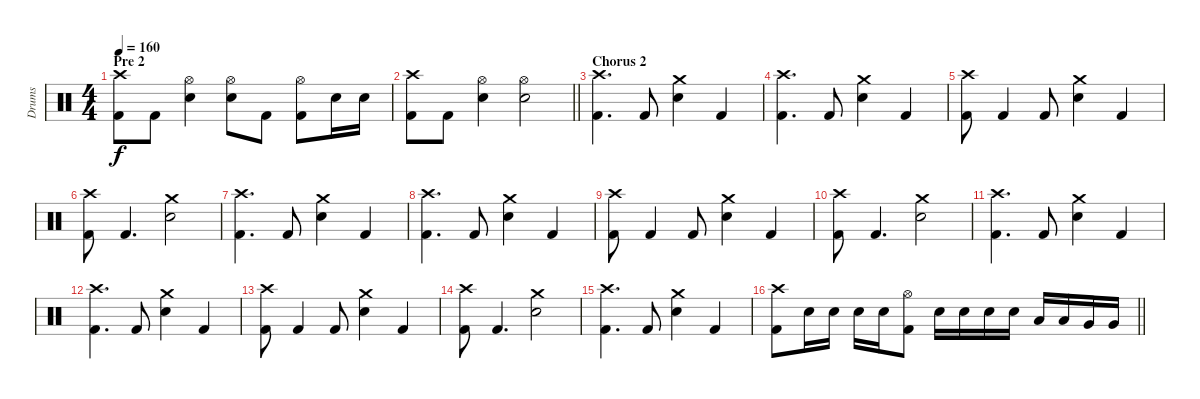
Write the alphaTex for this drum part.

\track ("Drums" "Drums") {instrument percussion}
\staff {score}
\articulation defaults
\ts (4 4)
\section ("" "Pre 2")
\tempo 160
\clef neutral
\ks c
("Kick (hit) 2" "Crash high (hit)").8{dy f} "Kick (hit) 2".8 ("Electric Snare (hit)" "Hi-Hat (open)").4 ("Electric Snare (hit)" "Hi-Hat (open)").8 "Kick (hit) 2".8 ("Kick (hit) 2" "Hi-Hat (open)").8 "Electric Snare (hit)".16 "Electric Snare (hit)".16 |
\barLineRight lightlight
("Kick (hit) 2" "Crash high (hit)").8 "Kick (hit) 2".8 ("Electric Snare (hit)" "Hi-Hat (open)").4 ("Electric Snare (hit)" "Hi-Hat (open)").2 |
\section ("" "Chorus 2")
("Kick (hit) 2" "Crash high (hit)").4{d} "Kick (hit) 2".8 ("Electric Snare (hit)" "Crash medium (hit)").4 "Kick (hit) 2".4 |
("Kick (hit) 2" "Crash high (hit)").4{d} "Kick (hit) 2".8 ("Electric Snare (hit)" "Crash medium (hit)").4 "Kick (hit) 2".4 |
("Kick (hit) 2" "Crash high (hit)").8 "Kick (hit) 2".4 "Kick (hit) 2".8 ("Electric Snare (hit)" "Crash medium (hit)").4 "Kick (hit) 2".4 |
("Kick (hit) 2" "Crash high (hit)").8 "Kick (hit) 2".4{d} ("Electric Snare (hit)" "Crash medium (hit)").2 |
("Kick (hit) 2" "Crash high (hit)").4{d} "Kick (hit) 2".8 ("Electric Snare (hit)" "Crash medium (hit)").4 "Kick (hit) 2".4 |
("Kick (hit) 2" "Crash high (hit)").4{d} "Kick (hit) 2".8 ("Electric Snare (hit)" "Crash medium (hit)").4 "Kick (hit) 2".4 |
("Kick (hit) 2" "Crash high (hit)").8 "Kick (hit) 2".4 "Kick (hit) 2".8 ("Electric Snare (hit)" "Crash medium (hit)").4 "Kick (hit) 2".4 |
("Kick (hit) 2" "Crash high (hit)").8 "Kick (hit) 2".4{d} ("Electric Snare (hit)" "Crash medium (hit)").2 |
("Kick (hit) 2" "Crash high (hit)").4{d} "Kick (hit) 2".8 ("Electric Snare (hit)" "Crash medium (hit)").4 "Kick (hit) 2".4 |
("Kick (hit) 2" "Crash high (hit)").4{d} "Kick (hit) 2".8 ("Electric Snare (hit)" "Crash medium (hit)").4 "Kick (hit) 2".4 |
("Kick (hit) 2" "Crash high (hit)").8 "Kick (hit) 2".4 "Kick (hit) 2".8 ("Electric Snare (hit)" "Crash medium (hit)").4 "Kick (hit) 2".4 |
("Kick (hit) 2" "Crash high (hit)").8 "Kick (hit) 2".4{d} ("Electric Snare (hit)" "Crash medium (hit)").2 |
("Kick (hit) 2" "Crash high (hit)").4{d} "Kick (hit) 2".8 ("Electric Snare (hit)" "Crash medium (hit)").4 "Kick (hit) 2".4 |
\barLineRight lightlight
("Kick (hit) 2" "Crash high (hit)").8 "Electric Snare (hit)".16 "Electric Snare (hit)".16 "Electric Snare (hit)".16 "Electric Snare (hit)".16 ("Kick (hit) 2" "Hi-Hat (open)").8 "Electric Snare (hit)".16 "Electric Snare (hit)".16 "Electric Snare (hit)".16 "Electric Snare (hit)".16 "Low Tom (hit)".16 "Low Tom (hit)".16 "Very Low Tom (hit)".16 "Very Low Tom (hit)".16
